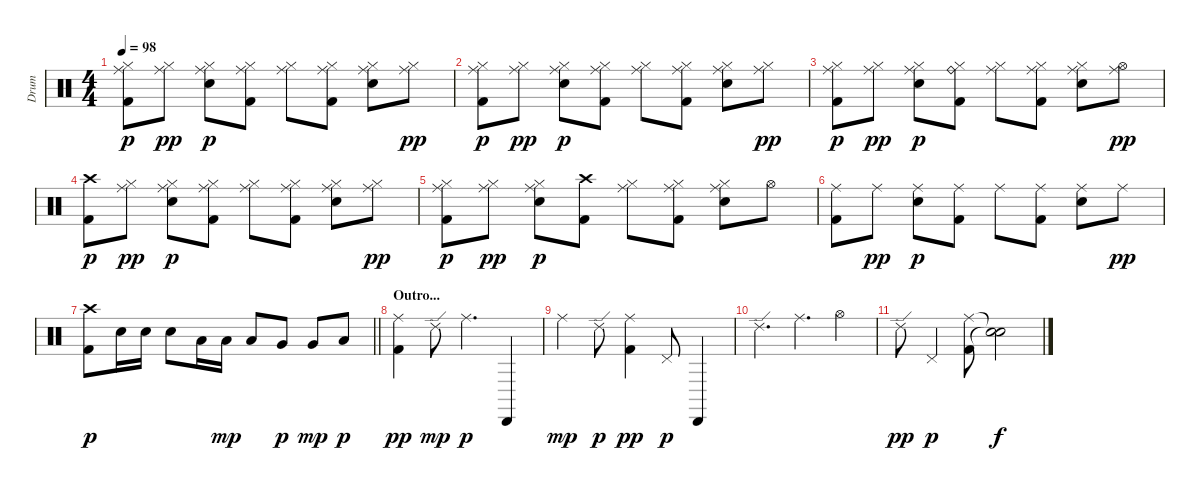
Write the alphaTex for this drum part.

\track ("Drum" "Drum") {instrument percussion}
\staff {score}
\articulation defaults
\ts (4 4)
\tempo 98
\clef neutral
\ks c
("Hi-Hat (closed)" "Ride (middle)" "Kick (hit) 2").8{dy p} ("Hi-Hat (closed)" "Ride (middle)").8{dy pp} ("Hi-Hat (closed)" "Ride (middle)" "Snare (hit) 2").8{dy p} ("Hi-Hat (closed)" "Ride (middle)" "Kick (hit) 2").8 ("Hi-Hat (closed)" "Ride (middle)").8 ("Hi-Hat (closed)" "Ride (middle)" "Kick (hit) 2").8 ("Hi-Hat (closed)" "Ride (middle)" "Snare (hit) 2").8 ("Hi-Hat (closed)" "Ride (middle)").8{dy pp} |
("Hi-Hat (closed)" "Ride (middle)" "Kick (hit) 2").8{dy p} ("Hi-Hat (closed)" "Ride (middle)").8{dy pp} ("Hi-Hat (closed)" "Ride (middle)" "Snare (hit) 2").8{dy p} ("Hi-Hat (closed)" "Ride (middle)" "Kick (hit) 2").8 ("Hi-Hat (closed)" "Ride (middle)").8 ("Hi-Hat (closed)" "Ride (middle)" "Kick (hit) 2").8 ("Hi-Hat (closed)" "Ride (middle)" "Snare (hit) 2").8 ("Hi-Hat (closed)" "Ride (middle)").8{dy pp} |
("Hi-Hat (closed)" "Ride (middle)" "Kick (hit) 2").8{dy p} ("Hi-Hat (closed)" "Ride (middle)").8{dy pp} ("Hi-Hat (closed)" "Ride (middle)" "Snare (hit) 2").8{dy p} ("Hi-Hat (closed)" "Ride (bell)" "Kick (hit) 2").8 ("Hi-Hat (closed)" "Ride (middle)").8 ("Hi-Hat (closed)" "Ride (middle)" "Kick (hit) 2").8 ("Hi-Hat (closed)" "Ride (middle)" "Snare (hit) 2").8 ("Hi-Hat (open)" "Ride (middle)").8{dy pp} |
("Crash high (hit)" "Kick (hit) 2").8{dy p} ("Hi-Hat (closed)" "Ride (middle)").8{dy pp} ("Hi-Hat (closed)" "Ride (middle)" "Snare (hit) 2").8{dy p} ("Hi-Hat (closed)" "Ride (middle)" "Kick (hit) 2").8 ("Hi-Hat (closed)" "Ride (middle)").8 ("Hi-Hat (closed)" "Ride (middle)" "Kick (hit) 2").8 ("Hi-Hat (closed)" "Ride (middle)" "Snare (hit) 2").8 ("Hi-Hat (closed)" "Ride (middle)").8{dy pp} |
("Hi-Hat (closed)" "Ride (middle)" "Kick (hit) 2").8{dy p} ("Hi-Hat (closed)" "Ride (middle)").8{dy pp} ("Hi-Hat (closed)" "Ride (middle)" "Snare (hit) 2").8{dy p} ("Crash high (hit)" "Kick (hit) 2").8 ("Hi-Hat (closed)" "Ride (middle)").8 ("Hi-Hat (closed)" "Ride (middle)" "Kick (hit) 2").8 ("Hi-Hat (closed)" "Ride (middle)" "Snare (hit) 2").8 "Hi-Hat (open)".8 |
("Ride (middle)" "Kick (hit) 2").8 "Ride (middle)".8{dy pp} ("Ride (middle)" "Snare (hit) 2").8{dy p} ("Ride (middle)" "Kick (hit) 2").8 "Ride (middle)".8 ("Ride (middle)" "Kick (hit) 2").8 ("Ride (middle)" "Snare (hit) 2").8 "Ride (middle)".8{dy pp} |
\barLineRight lightlight
("Crash high (hit)" "Kick (hit) 2").8{dy p} "Snare (hit) 2".16 "Snare (hit) 2".16 "Snare (hit) 2".8 "Low Tom (hit)".16 "Low Tom (hit)".16{dy mp} "Low Tom (hit)".8 "Very Low Tom (hit)".8{dy p} "Very Low Tom (hit)".8{dy mp} "Low Floor Tom (hit)".8{dy p} |
\section ("" "Outro...")
("Ride (middle)" "Kick (hit) 2").4{dy pp} "Ride (edge) 2".8{dy mp} "Ride (middle)".4{d dy p} "Cabasa (hit)".4 |
"Ride (middle)".4{dy mp} "Ride (edge) 2".8{dy p} ("Ride (middle)" "Kick (hit) 2").4{dy pp} "Pedal Hi-Hat (hit)".8{dy p} "Cabasa (hit)".4 |
"Ride (edge) 2".4{d} "Ride (middle)".4{d} "Hi-Hat (open)".4 |
"Ride (edge) 2".8{dy pp} "Pedal Hi-Hat (hit)".4{dy p} ("Ride (middle)" "Kick (hit) 2").8 ("Snare (hit)"{t} "Snare (hit)"{t}).2{dy f}
